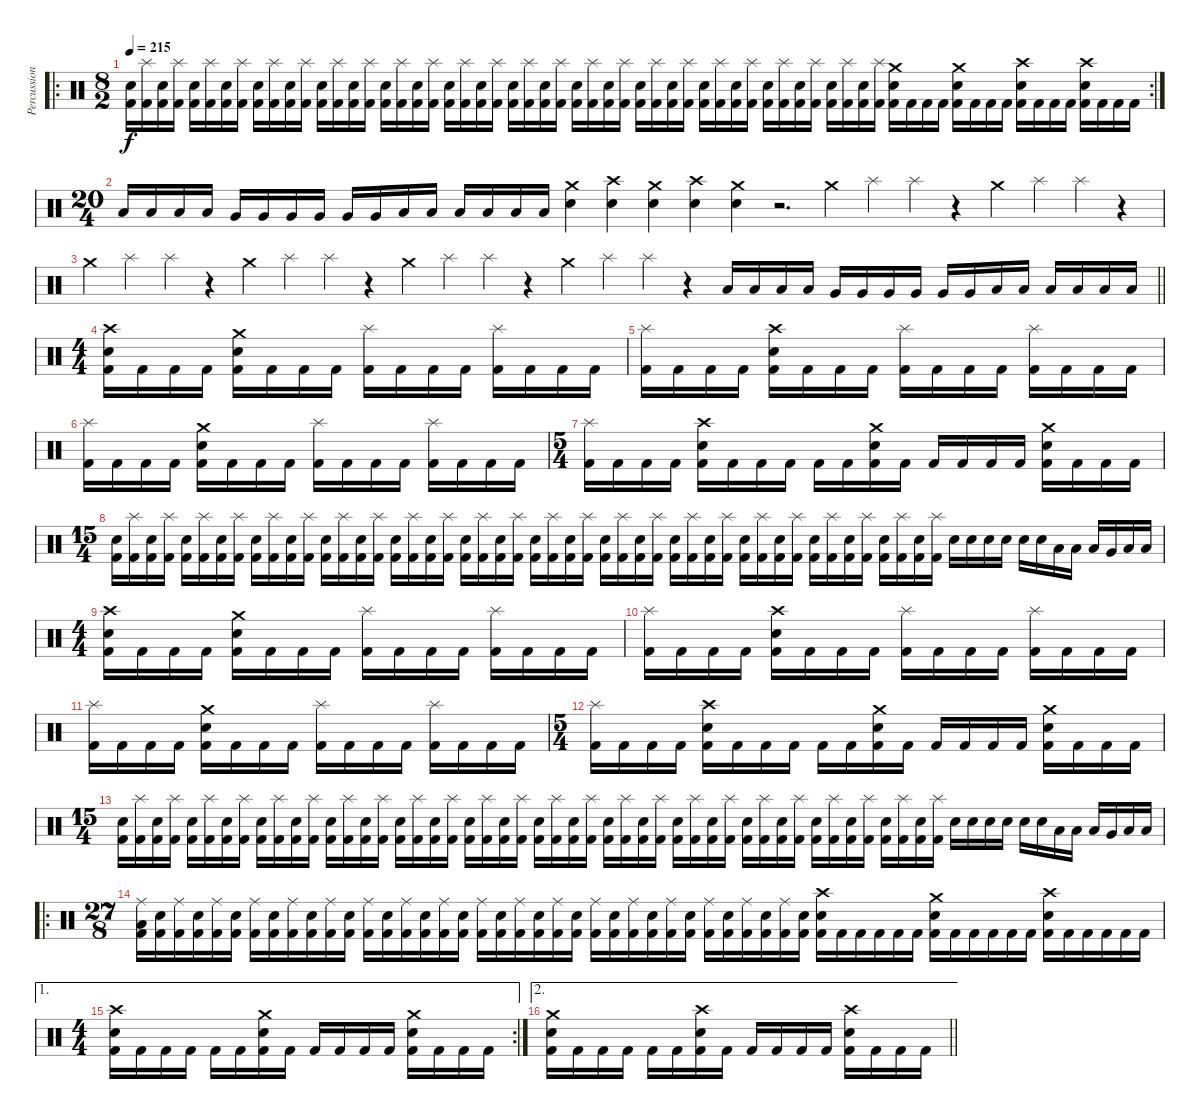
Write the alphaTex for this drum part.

\track ("Percussions" "Percussion") {instrument percussion}
\staff {score}
\articulation defaults
\ro
\rc 2
\ts (8 2)
\tempo 215
\clef neutral
\ks c
("Electric Snare (hit)" "Kick (hit) 2").16{dy f} ("Splash (hit)" "Kick (hit) 2").16 ("Electric Snare (hit)" "Kick (hit) 2").16 ("Splash (hit)" "Kick (hit) 2").16 ("Electric Snare (hit)" "Kick (hit) 2").16 ("Splash (hit)" "Kick (hit) 2").16 ("Electric Snare (hit)" "Kick (hit) 2").16 ("Splash (hit)" "Kick (hit) 2").16 ("Electric Snare (hit)" "Kick (hit) 2").16 ("Splash (hit)" "Kick (hit) 2").16 ("Electric Snare (hit)" "Kick (hit) 2").16 ("Splash (hit)" "Kick (hit) 2").16 ("Electric Snare (hit)" "Kick (hit) 2").16 ("Splash (hit)" "Kick (hit) 2").16 ("Electric Snare (hit)" "Kick (hit) 2").16 ("Splash (hit)" "Kick (hit) 2").16 ("Electric Snare (hit)" "Kick (hit) 2").16 ("Splash (hit)" "Kick (hit) 2").16 ("Electric Snare (hit)" "Kick (hit) 2").16 ("Splash (hit)" "Kick (hit) 2").16 ("Electric Snare (hit)" "Kick (hit) 2").16 ("Splash (hit)" "Kick (hit) 2").16 ("Electric Snare (hit)" "Kick (hit) 2").16 ("Splash (hit)" "Kick (hit) 2").16 ("Electric Snare (hit)" "Kick (hit) 2").16 ("Splash (hit)" "Kick (hit) 2").16 ("Electric Snare (hit)" "Kick (hit) 2").16 ("Splash (hit)" "Kick (hit) 2").16 ("Electric Snare (hit)" "Kick (hit) 2").16 ("Splash (hit)" "Kick (hit) 2").16 ("Electric Snare (hit)" "Kick (hit) 2").16 ("Splash (hit)" "Kick (hit) 2").16 ("Electric Snare (hit)" "Kick (hit) 2").16 ("Splash (hit)" "Kick (hit) 2").16 ("Electric Snare (hit)" "Kick (hit) 2").16 ("Splash (hit)" "Kick (hit) 2").16 ("Electric Snare (hit)" "Kick (hit) 2").16 ("Splash (hit)" "Kick (hit) 2").16 ("Electric Snare (hit)" "Kick (hit) 2").16 ("Splash (hit)" "Kick (hit) 2").16 ("Electric Snare (hit)" "Kick (hit) 2").16 ("Splash (hit)" "Kick (hit) 2").16 ("Electric Snare (hit)" "Kick (hit) 2").16 ("Splash (hit)" "Kick (hit) 2").16 ("Electric Snare (hit)" "Kick (hit) 2").16 ("Splash (hit)" "Kick (hit) 2").16 ("Electric Snare (hit)" "Kick (hit) 2").16 ("Splash (hit)" "Kick (hit) 2").16 ("Crash medium (hit)" "Electric Snare (hit)" "Kick (hit) 2").16 "Kick (hit) 2".16 "Kick (hit) 2".16 "Kick (hit) 2".16 ("Crash medium (hit)" "Electric Snare (hit)" "Kick (hit) 2").16 "Kick (hit) 2".16 "Kick (hit) 2".16 "Kick (hit) 2".16 ("Crash high (hit)" "Electric Snare (hit)" "Kick (hit) 2").16 "Kick (hit) 2".16 "Kick (hit) 2".16 "Kick (hit) 2".16 ("Crash high (hit)" "Electric Snare (hit)" "Kick (hit) 2").16 "Kick (hit) 2".16 "Kick (hit) 2".16 "Kick (hit) 2".16 |
\ts (20 4)
"Low Tom (hit)".16 "Low Tom (hit)".16 "Low Tom (hit)".16 "Low Tom (hit)".16 "Very Low Tom (hit)".16 "Very Low Tom (hit)".16 "Very Low Tom (hit)".16 "Very Low Tom (hit)".16 "Very Low Tom (hit)".16 "Very Low Tom (hit)".16 "Low Floor Tom (hit)".16 "Low Floor Tom (hit)".16 "Low Floor Tom (hit)".16 "Low Floor Tom (hit)".16 "Low Floor Tom (hit)".16 "Low Floor Tom (hit)".16 ("Crash medium (hit)" "Electric Snare (hit)").4 ("Crash high (hit)" "Electric Snare (hit)").4 ("Crash medium (hit)" "Electric Snare (hit)").4 ("Crash high (hit)" "Electric Snare (hit)").4 ("Crash medium (hit)" "Electric Snare (hit)").4 r.2{d} "Crash medium (hit)".4 "Splash (hit)".4 "Splash (hit)".4 r.4 "Crash medium (hit)".4 "Splash (hit)".4 "Splash (hit)".4 r.4 |
\barLineRight lightlight "Crash medium (hit)".4 "Splash (hit)".4 "Splash (hit)".4
r.4 "Crash medium (hit)".4 "Splash (hit)".4 "Splash (hit)".4 r.4 "Crash medium (hit)".4 "Splash (hit)".4 "Splash (hit)".4 r.4 "Crash medium (hit)".4 "Splash (hit)".4 "Splash (hit)".4 r.4 "Low Tom (hit)".16 "Low Tom (hit)".16 "Low Tom (hit)".16 "Low Tom (hit)".16 "Very Low Tom (hit)".16 "Very Low Tom (hit)".16 "Very Low Tom (hit)".16 "Very Low Tom (hit)".16 "Very Low Tom (hit)".16 "Very Low Tom (hit)".16 "Low Floor Tom (hit)".16 "Low Floor Tom (hit)".16 "Low Floor Tom (hit)".16 "Low Floor Tom (hit)".16 "Low Floor Tom (hit)".16 "Low Floor Tom (hit)".16 |
\ts (4 4)
("Crash high (hit)" "Electric Snare (hit)" "Kick (hit) 2").16 "Kick (hit) 2".16 "Kick (hit) 2".16 "Kick (hit) 2".16 ("Crash medium (hit)" "Electric Snare (hit)" "Kick (hit) 2").16 "Kick (hit) 2".16 "Kick (hit) 2".16 "Kick (hit) 2".16 ("Splash (hit)" "Kick (hit) 2").16 "Kick (hit) 2".16 "Kick (hit) 2".16 "Kick (hit) 2".16 ("Splash (hit)" "Kick (hit) 2").16 "Kick (hit) 2".16 "Kick (hit) 2".16 "Kick (hit) 2".16 |
("Splash (hit)" "Kick (hit) 2").16 "Kick (hit) 2".16 "Kick (hit) 2".16 "Kick (hit) 2".16 ("Crash high (hit)" "Electric Snare (hit)" "Kick (hit) 2").16 "Kick (hit) 2".16 "Kick (hit) 2".16 "Kick (hit) 2".16 ("Splash (hit)" "Kick (hit) 2").16 "Kick (hit) 2".16 "Kick (hit) 2".16 "Kick (hit) 2".16 ("Splash (hit)" "Kick (hit) 2").16 "Kick (hit) 2".16 "Kick (hit) 2".16 "Kick (hit) 2".16 |
("Splash (hit)" "Kick (hit) 2").16 "Kick (hit) 2".16 "Kick (hit) 2".16 "Kick (hit) 2".16 ("Crash medium (hit)" "Electric Snare (hit)" "Kick (hit) 2").16 "Kick (hit) 2".16 "Kick (hit) 2".16 "Kick (hit) 2".16 ("Splash (hit)" "Kick (hit) 2").16 "Kick (hit) 2".16 "Kick (hit) 2".16 "Kick (hit) 2".16 ("Splash (hit)" "Kick (hit) 2").16 "Kick (hit) 2".16 "Kick (hit) 2".16 "Kick (hit) 2".16 |
\ts (5 4)
("Splash (hit)" "Kick (hit) 2").16 "Kick (hit) 2".16 "Kick (hit) 2".16 "Kick (hit) 2".16 ("Crash high (hit)" "Electric Snare (hit)" "Kick (hit) 2").16 "Kick (hit) 2".16 "Kick (hit) 2".16 "Kick (hit) 2".16 "Kick (hit) 2".16 "Kick (hit) 2".16 ("Crash medium (hit)" "Electric Snare (hit)" "Kick (hit) 2").16 "Kick (hit) 2".16 "Kick (hit) 2".16 "Kick (hit) 2".16 "Kick (hit) 2".16 "Kick (hit) 2".16 ("Crash medium (hit)" "Electric Snare (hit)" "Kick (hit) 2").16 "Kick (hit) 2".16 "Kick (hit) 2".16 "Kick (hit) 2".16 |
\ts (15 4)
("Electric Snare (hit)" "Kick (hit) 2").16 ("Splash (hit)" "Kick (hit) 2").16 ("Electric Snare (hit)" "Kick (hit) 2").16 ("Splash (hit)" "Kick (hit) 2").16 ("Electric Snare (hit)" "Kick (hit) 2").16 ("Splash (hit)" "Kick (hit) 2").16 ("Electric Snare (hit)" "Kick (hit) 2").16 ("Splash (hit)" "Kick (hit) 2").16 ("Electric Snare (hit)" "Kick (hit) 2").16 ("Splash (hit)" "Kick (hit) 2").16 ("Electric Snare (hit)" "Kick (hit) 2").16 ("Splash (hit)" "Kick (hit) 2").16 ("Electric Snare (hit)" "Kick (hit) 2").16 ("Splash (hit)" "Kick (hit) 2").16 ("Electric Snare (hit)" "Kick (hit) 2").16 ("Splash (hit)" "Kick (hit) 2").16 ("Electric Snare (hit)" "Kick (hit) 2").16 ("Splash (hit)" "Kick (hit) 2").16 ("Electric Snare (hit)" "Kick (hit) 2").16 ("Splash (hit)" "Kick (hit) 2").16 ("Electric Snare (hit)" "Kick (hit) 2").16 ("Splash (hit)" "Kick (hit) 2").16 ("Electric Snare (hit)" "Kick (hit) 2").16 ("Splash (hit)" "Kick (hit) 2").16 ("Electric Snare (hit)" "Kick (hit) 2").16 ("Splash (hit)" "Kick (hit) 2").16 ("Electric Snare (hit)" "Kick (hit) 2").16 ("Splash (hit)" "Kick (hit) 2").16 ("Electric Snare (hit)" "Kick (hit) 2").16 ("Splash (hit)" "Kick (hit) 2").16 ("Electric Snare (hit)" "Kick (hit) 2").16 ("Splash (hit)" "Kick (hit) 2").16 ("Electric Snare (hit)" "Kick (hit) 2").16 ("Splash (hit)" "Kick (hit) 2").16 ("Electric Snare (hit)" "Kick (hit) 2").16 ("Splash (hit)" "Kick (hit) 2").16 ("Electric Snare (hit)" "Kick (hit) 2").16 ("Splash (hit)" "Kick (hit) 2").16 ("Electric Snare (hit)" "Kick (hit) 2").16 ("Splash (hit)" "Kick (hit) 2").16 ("Electric Snare (hit)" "Kick (hit) 2").16 ("Splash (hit)" "Kick (hit) 2").16 ("Electric Snare (hit)" "Kick (hit) 2").16 ("Splash (hit)" "Kick (hit) 2").16 ("Electric Snare (hit)" "Kick (hit) 2").16 ("Splash (hit)" "Kick (hit) 2").16 ("Electric Snare (hit)" "Kick (hit) 2").16 ("Splash (hit)" "Kick (hit) 2").16 "Electric Snare (hit)".16 "Electric Snare (hit)".16 "Electric Snare (hit)".16 "Electric Snare (hit)".16 "Electric Snare (hit)".16 "Electric Snare (hit)".16 "Low Tom (hit)".16 "Low Tom (hit)".16 "Low Tom (hit)".16 "Very Low Tom (hit)".16 "Low Floor Tom (hit)".16 "Low Floor Tom (hit)".16 |
\ts (4 4)
("Crash high (hit)" "Electric Snare (hit)" "Kick (hit) 2").16 "Kick (hit) 2".16 "Kick (hit) 2".16 "Kick (hit) 2".16 ("Crash medium (hit)" "Electric Snare (hit)" "Kick (hit) 2").16 "Kick (hit) 2".16 "Kick (hit) 2".16 "Kick (hit) 2".16 ("Splash (hit)" "Kick (hit) 2").16 "Kick (hit) 2".16 "Kick (hit) 2".16 "Kick (hit) 2".16 ("Splash (hit)" "Kick (hit) 2").16 "Kick (hit) 2".16 "Kick (hit) 2".16 "Kick (hit) 2".16 |
("Splash (hit)" "Kick (hit) 2").16 "Kick (hit) 2".16 "Kick (hit) 2".16 "Kick (hit) 2".16 ("Crash high (hit)" "Electric Snare (hit)" "Kick (hit) 2").16 "Kick (hit) 2".16 "Kick (hit) 2".16 "Kick (hit) 2".16 ("Splash (hit)" "Kick (hit) 2").16 "Kick (hit) 2".16 "Kick (hit) 2".16 "Kick (hit) 2".16 ("Splash (hit)" "Kick (hit) 2").16 "Kick (hit) 2".16 "Kick (hit) 2".16 "Kick (hit) 2".16 |
("Splash (hit)" "Kick (hit) 2").16 "Kick (hit) 2".16 "Kick (hit) 2".16 "Kick (hit) 2".16 ("Crash medium (hit)" "Electric Snare (hit)" "Kick (hit) 2").16 "Kick (hit) 2".16 "Kick (hit) 2".16 "Kick (hit) 2".16 ("Splash (hit)" "Kick (hit) 2").16 "Kick (hit) 2".16 "Kick (hit) 2".16 "Kick (hit) 2".16 ("Splash (hit)" "Kick (hit) 2").16 "Kick (hit) 2".16 "Kick (hit) 2".16 "Kick (hit) 2".16 |
\ts (5 4)
("Splash (hit)" "Kick (hit) 2").16 "Kick (hit) 2".16 "Kick (hit) 2".16 "Kick (hit) 2".16 ("Crash high (hit)" "Electric Snare (hit)" "Kick (hit) 2").16 "Kick (hit) 2".16 "Kick (hit) 2".16 "Kick (hit) 2".16 "Kick (hit) 2".16 "Kick (hit) 2".16 ("Crash medium (hit)" "Electric Snare (hit)" "Kick (hit) 2").16 "Kick (hit) 2".16 "Kick (hit) 2".16 "Kick (hit) 2".16 "Kick (hit) 2".16 "Kick (hit) 2".16 ("Crash medium (hit)" "Electric Snare (hit)" "Kick (hit) 2").16 "Kick (hit) 2".16 "Kick (hit) 2".16 "Kick (hit) 2".16 |
\ts (15 4)
("Electric Snare (hit)" "Kick (hit) 2").16 ("Splash (hit)" "Kick (hit) 2").16 ("Electric Snare (hit)" "Kick (hit) 2").16 ("Splash (hit)" "Kick (hit) 2").16 ("Electric Snare (hit)" "Kick (hit) 2").16 ("Splash (hit)" "Kick (hit) 2").16 ("Electric Snare (hit)" "Kick (hit) 2").16 ("Splash (hit)" "Kick (hit) 2").16 ("Electric Snare (hit)" "Kick (hit) 2").16 ("Splash (hit)" "Kick (hit) 2").16 ("Electric Snare (hit)" "Kick (hit) 2").16 ("Splash (hit)" "Kick (hit) 2").16 ("Electric Snare (hit)" "Kick (hit) 2").16 ("Splash (hit)" "Kick (hit) 2").16 ("Electric Snare (hit)" "Kick (hit) 2").16 ("Splash (hit)" "Kick (hit) 2").16 ("Electric Snare (hit)" "Kick (hit) 2").16 ("Splash (hit)" "Kick (hit) 2").16 ("Electric Snare (hit)" "Kick (hit) 2").16 ("Splash (hit)" "Kick (hit) 2").16 ("Electric Snare (hit)" "Kick (hit) 2").16 ("Splash (hit)" "Kick (hit) 2").16 ("Electric Snare (hit)" "Kick (hit) 2").16 ("Splash (hit)" "Kick (hit) 2").16 ("Electric Snare (hit)" "Kick (hit) 2").16 ("Splash (hit)" "Kick (hit) 2").16 ("Electric Snare (hit)" "Kick (hit) 2").16 ("Splash (hit)" "Kick (hit) 2").16 ("Electric Snare (hit)" "Kick (hit) 2").16 ("Splash (hit)" "Kick (hit) 2").16 ("Electric Snare (hit)" "Kick (hit) 2").16 ("Splash (hit)" "Kick (hit) 2").16 ("Electric Snare (hit)" "Kick (hit) 2").16 ("Splash (hit)" "Kick (hit) 2").16 ("Electric Snare (hit)" "Kick (hit) 2").16 ("Splash (hit)" "Kick (hit) 2").16 ("Electric Snare (hit)" "Kick (hit) 2").16 ("Splash (hit)" "Kick (hit) 2").16 ("Electric Snare (hit)" "Kick (hit) 2").16 ("Splash (hit)" "Kick (hit) 2").16 ("Electric Snare (hit)" "Kick (hit) 2").16 ("Splash (hit)" "Kick (hit) 2").16 ("Electric Snare (hit)" "Kick (hit) 2").16 ("Splash (hit)" "Kick (hit) 2").16 ("Electric Snare (hit)" "Kick (hit) 2").16 ("Splash (hit)" "Kick (hit) 2").16 ("Electric Snare (hit)" "Kick (hit) 2").16 ("Splash (hit)" "Kick (hit) 2").16 "Electric Snare (hit)".16 "Electric Snare (hit)".16 "Electric Snare (hit)".16 "Electric Snare (hit)".16 "Electric Snare (hit)".16 "Electric Snare (hit)".16 "Low Tom (hit)".16 "Low Tom (hit)".16 "Low Tom (hit)".16 "Very Low Tom (hit)".16 "Low Floor Tom (hit)".16 "Low Floor Tom (hit)".16 |
\ro
\ts (27 8)
("Ride (middle)" "Low Floor Tom (hit)" "Kick (hit) 2").16 ("Electric Snare (hit)" "Kick (hit) 2").16 ("Ride (middle)" "Kick (hit) 2").16 ("Electric Snare (hit)" "Kick (hit) 2").16 ("Ride (middle)" "Kick (hit) 2").16 ("Electric Snare (hit)" "Kick (hit) 2").16 ("Ride (middle)" "Kick (hit) 2").16 ("Electric Snare (hit)" "Kick (hit) 2").16 ("Ride (middle)" "Kick (hit) 2").16 ("Electric Snare (hit)" "Kick (hit) 2").16 ("Ride (middle)" "Kick (hit) 2").16 ("Electric Snare (hit)" "Kick (hit) 2").16 ("Ride (middle)" "Kick (hit) 2").16 ("Electric Snare (hit)" "Kick (hit) 2").16 ("Ride (middle)" "Kick (hit) 2").16 ("Electric Snare (hit)" "Kick (hit) 2").16 ("Ride (middle)" "Kick (hit) 2").16 ("Electric Snare (hit)" "Kick (hit) 2").16 ("Ride (middle)" "Kick (hit) 2").16 ("Electric Snare (hit)" "Kick (hit) 2").16 ("Ride (middle)" "Kick (hit) 2").16 ("Electric Snare (hit)" "Kick (hit) 2").16 ("Ride (middle)" "Kick (hit) 2").16 ("Electric Snare (hit)" "Kick (hit) 2").16 ("Ride (middle)" "Kick (hit) 2").16 ("Electric Snare (hit)" "Kick (hit) 2").16 ("Ride (middle)" "Kick (hit) 2").16 ("Electric Snare (hit)" "Kick (hit) 2").16 ("Ride (middle)" "Kick (hit) 2").16 ("Electric Snare (hit)" "Kick (hit) 2").16 ("Ride (middle)" "Kick (hit) 2").16 ("Electric Snare (hit)" "Kick (hit) 2").16 ("Ride (middle)" "Kick (hit) 2").16 ("Electric Snare (hit)" "Kick (hit) 2").16 ("Ride (middle)" "Kick (hit) 2").16 ("Electric Snare (hit)" "Kick (hit) 2").16 ("Crash high (hit)" "Electric Snare (hit)" "Kick (hit) 2").16 "Kick (hit) 2".16 "Kick (hit) 2".16 "Kick (hit) 2".16 "Kick (hit) 2".16 "Kick (hit) 2".16 ("Crash medium (hit)" "Electric Snare (hit)" "Kick (hit) 2").16 "Kick (hit) 2".16 "Kick (hit) 2".16 "Kick (hit) 2".16 "Kick (hit) 2".16 "Kick (hit) 2".16 ("Crash high (hit)" "Electric Snare (hit)" "Kick (hit) 2").16 "Kick (hit) 2".16 "Kick (hit) 2".16 "Kick (hit) 2".16 "Kick (hit) 2".16 "Kick (hit) 2".16 |
\ae 1
\rc 2
\ts (4 4)
("Crash high (hit)" "Electric Snare (hit)" "Kick (hit) 2").16 "Kick (hit) 2".16 "Kick (hit) 2".16 "Kick (hit) 2".16 "Kick (hit) 2".16 "Kick (hit) 2".16 ("Crash medium (hit)" "Electric Snare (hit)" "Kick (hit) 2").16 "Kick (hit) 2".16 "Kick (hit) 2".16 "Kick (hit) 2".16 "Kick (hit) 2".16 "Kick (hit) 2".16 ("Crash medium (hit)" "Electric Snare (hit)" "Kick (hit) 2").16 "Kick (hit) 2".16 "Kick (hit) 2".16 "Kick (hit) 2".16 |
\ae 2
\barLineRight lightlight
("Crash medium (hit)" "Electric Snare (hit)" "Kick (hit) 2").16 "Kick (hit) 2".16 "Kick (hit) 2".16 "Kick (hit) 2".16 "Kick (hit) 2".16 "Kick (hit) 2".16 ("Crash high (hit)" "Electric Snare (hit)" "Kick (hit) 2").16 "Kick (hit) 2".16 "Kick (hit) 2".16 "Kick (hit) 2".16 "Kick (hit) 2".16 "Kick (hit) 2".16 ("Crash high (hit)" "Electric Snare (hit)" "Kick (hit) 2").16 "Kick (hit) 2".16 "Kick (hit) 2".16 "Kick (hit) 2".16
